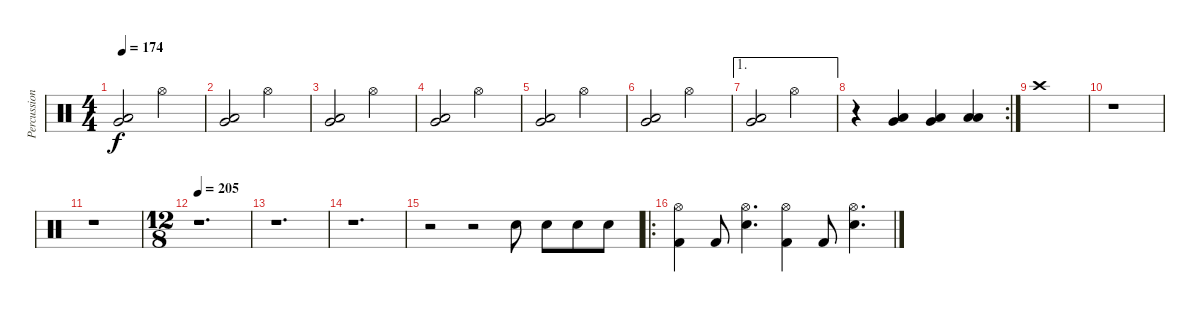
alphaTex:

\track ("Percussion" "Percussion") {instrument percussion}
\staff {score}
\articulation defaults
\ts (4 4)
\tempo 174
\clef neutral
\ks c
("Low Floor Tom (hit)" "Very Low Tom (hit)").2{dy f} "Hi-Hat (open)".2 |
("Low Floor Tom (hit)" "Very Low Tom (hit)").2 "Hi-Hat (open)".2 |
("Low Floor Tom (hit)" "Very Low Tom (hit)").2 "Hi-Hat (open)".2 |
("Low Floor Tom (hit)" "Very Low Tom (hit)").2 "Hi-Hat (open)".2 |
("Low Floor Tom (hit)" "Very Low Tom (hit)").2 "Hi-Hat (open)".2 |
("Low Floor Tom (hit)" "Very Low Tom (hit)").2 "Hi-Hat (open)".2 |
\ae 1
("Low Floor Tom (hit)" "Very Low Tom (hit)").2 "Hi-Hat (open)".2 |
\rc 2
r.4 ("Low Floor Tom (hit)" "Very Low Tom (hit)").4 ("Low Floor Tom (hit)" "Very Low Tom (hit)").4 ("Low Floor Tom (hit)" "Low Floor Tom (hit)").4 |
"Crash high (hit)".1 |
r.1 |
r.1 |
\ts (12 8)
\tempo 205
r.1{d} |
r.1{d} |
r.1{d} |
r.2 r.2 "Snare (hit) 2".8 "Snare (hit) 2".8 "Snare (hit) 2".8 "Snare (hit) 2".8 |
\ro
("Hi-Hat (open)" "Kick (hit) 2").4 "Kick (hit) 2".8 ("Hi-Hat (open)" "Snare (hit) 2").4{d} ("Hi-Hat (open)" "Kick (hit) 2").4 "Kick (hit) 2".8 ("Hi-Hat (open)" "Snare (hit) 2").4{d}
